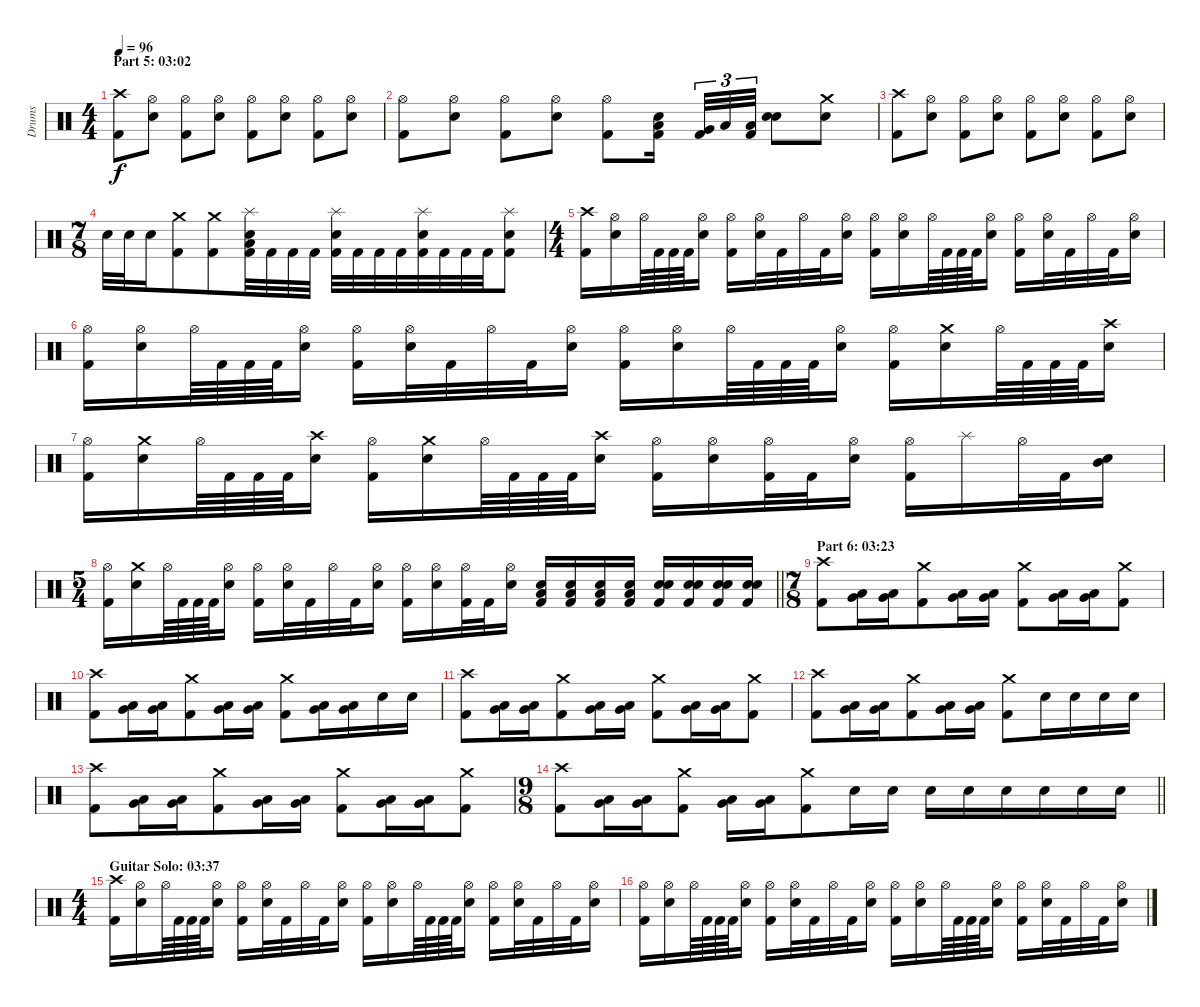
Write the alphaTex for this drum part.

\track ("Drums" "Drums") {instrument percussion}
\staff {score}
\articulation defaults
\ts (4 4)
\section ("" "Part 5: 03:02")
\tempo 96
\clef neutral
\ks c
("Crash high (hit)" "Kick (hit) 2").8{dy f} ("Hi-Hat (open)" "Electric Snare (hit)").8 ("Hi-Hat (open)" "Kick (hit) 2").8 ("Hi-Hat (open)" "Electric Snare (hit)").8 ("Hi-Hat (open)" "Kick (hit) 2").8 ("Hi-Hat (open)" "Electric Snare (hit)").8 ("Hi-Hat (open)" "Kick (hit) 2").8 ("Hi-Hat (open)" "Electric Snare (hit)").8 |
("Hi-Hat (open)" "Kick (hit) 2").8 ("Hi-Hat (open)" "Electric Snare (hit)").8 ("Hi-Hat (open)" "Kick (hit) 2").8 ("Hi-Hat (open)" "Electric Snare (hit)").8 ("Hi-Hat (open)" "Kick (hit) 2").8 ("Low Tom (hit)" "Electric Snare (hit)" "Kick (hit) 2").16{bd 30 beam splitsecondary} ("Very Low Tom (hit)" "Kick (hit) 2").32{tu (3 2) bd 30} "Low Floor Tom (hit)".32{tu (3 2)} ("Low Floor Tom (hit)" "Kick (hit) 2").32{tu (3 2)} ("Electric Snare (hit)" "Electric Snare (hit)").8{bd 30} ("Crash medium (hit)" "Electric Snare (hit)").8 |
("Crash high (hit)" "Kick (hit) 2").8 ("Hi-Hat (open)" "Electric Snare (hit)").8 ("Hi-Hat (open)" "Kick (hit) 2").8 ("Hi-Hat (open)" "Electric Snare (hit)").8 ("Hi-Hat (open)" "Kick (hit) 2").8 ("Hi-Hat (open)" "Electric Snare (hit)").8 ("Hi-Hat (open)" "Kick (hit) 2").8 ("Hi-Hat (open)" "Electric Snare (hit)").8 |
\ts (7 8)
"Electric Snare (hit)".32 "Electric Snare (hit)".32 "Electric Snare (hit)".16 ("Crash medium (hit)" "Kick (hit) 2").8 ("Crash medium (hit)" "Kick (hit) 2").8 ("Splash (hit)" "Low Tom (hit)" "Electric Snare (hit)" "Kick (hit) 2").32{bd 30} "Kick (hit) 2".32 "Kick (hit) 2".32 "Kick (hit) 2".32 ("Splash (hit)" "Electric Snare (hit)" "Kick (hit) 2").32 "Kick (hit) 2".32 "Kick (hit) 2".32 "Kick (hit) 2".32 ("Splash (hit)" "Electric Snare (hit)" "Kick (hit) 2").32 "Kick (hit) 2".32 "Kick (hit) 2".32 "Kick (hit) 2".32 ("Splash (hit)" "Electric Snare (hit)" "Kick (hit) 2").8 |
\ts (4 4)
("Crash high (hit)" "Kick (hit) 2").16 ("Hi-Hat (open)" "Electric Snare (hit)").16 "Hi-Hat (open)".64 "Kick (hit) 2".64 "Kick (hit) 2".64 "Kick (hit) 2".64 ("Hi-Hat (open)" "Electric Snare (hit)").16 ("Hi-Hat (open)" "Kick (hit) 2").16 ("Hi-Hat (open)" "Electric Snare (hit)").32 "Kick (hit) 2".32 "Hi-Hat (open)".32 "Kick (hit) 2".32 ("Hi-Hat (open)" "Electric Snare (hit)").16 ("Hi-Hat (open)" "Kick (hit) 2").16 ("Hi-Hat (open)" "Electric Snare (hit)").16 "Hi-Hat (open)".64 "Kick (hit) 2".64 "Kick (hit) 2".64 "Kick (hit) 2".64 ("Hi-Hat (open)" "Electric Snare (hit)").16 ("Hi-Hat (open)" "Kick (hit) 2").16 ("Hi-Hat (open)" "Electric Snare (hit)").32 "Kick (hit) 2".32 "Hi-Hat (open)".32 "Kick (hit) 2".32 ("Hi-Hat (open)" "Electric Snare (hit)").16 |
("Hi-Hat (open)" "Kick (hit) 2").16 ("Hi-Hat (open)" "Electric Snare (hit)").16 "Hi-Hat (open)".64 "Kick (hit) 2".64 "Kick (hit) 2".64 "Kick (hit) 2".64 ("Hi-Hat (open)" "Electric Snare (hit)").16 ("Hi-Hat (open)" "Kick (hit) 2").16 ("Hi-Hat (open)" "Electric Snare (hit)").32 "Kick (hit) 2".32 "Hi-Hat (open)".32 "Kick (hit) 2".32 ("Hi-Hat (open)" "Electric Snare (hit)").16 ("Hi-Hat (open)" "Kick (hit) 2").16 ("Hi-Hat (open)" "Electric Snare (hit)").16 "Hi-Hat (open)".64 "Kick (hit) 2".64 "Kick (hit) 2".64 "Kick (hit) 2".64 ("Hi-Hat (open)" "Electric Snare (hit)").16 ("Hi-Hat (open)" "Kick (hit) 2").16 ("Crash medium (hit)" "Electric Snare (hit)").16 "Hi-Hat (open)".64 "Kick (hit) 2".64 "Kick (hit) 2".64 "Kick (hit) 2".64 ("Crash high (hit)" "Electric Snare (hit)").16 |
("Hi-Hat (open)" "Kick (hit) 2").16 ("Crash medium (hit)" "Electric Snare (hit)").16 "Hi-Hat (open)".64 "Kick (hit) 2".64 "Kick (hit) 2".64 "Kick (hit) 2".64 ("Crash high (hit)" "Electric Snare (hit)").16 ("Hi-Hat (open)" "Kick (hit) 2").16 ("Crash medium (hit)" "Electric Snare (hit)").16 "Hi-Hat (open)".64 "Kick (hit) 2".64 "Kick (hit) 2".64 "Kick (hit) 2".64 ("Crash high (hit)" "Electric Snare (hit)").16 ("Hi-Hat (open)" "Kick (hit) 2").16 ("Hi-Hat (open)" "Electric Snare (hit)").16 ("Hi-Hat (open)" "Kick (hit) 2").32 "Kick (hit) 2".32 ("Hi-Hat (open)" "Electric Snare (hit)").16 ("Hi-Hat (open)" "Kick (hit) 2").16 "Splash (hit)".16 "Hi-Hat (open)".32 "Kick (hit) 2".32 ("Mid Tom (hit)" "Electric Snare (hit)").16{bd 60} |
\ts (5 4)
\barLineRight lightlight
("Hi-Hat (open)" "Kick (hit) 2").16 ("Crash medium (hit)" "Electric Snare (hit)").16 "Hi-Hat (open)".64 "Kick (hit) 2".64 "Kick (hit) 2".64 "Kick (hit) 2".64 ("Hi-Hat (open)" "Electric Snare (hit)").16 ("Hi-Hat (open)" "Kick (hit) 2").16 ("Hi-Hat (open)" "Electric Snare (hit)").32 "Kick (hit) 2".32 "Hi-Hat (open)".32 "Kick (hit) 2".32 ("Hi-Hat (open)" "Electric Snare (hit)").16 ("Hi-Hat (open)" "Kick (hit) 2").16 ("Hi-Hat (open)" "Electric Snare (hit)").16 ("Hi-Hat (open)" "Kick (hit) 2").32 "Kick (hit) 2".32 ("Hi-Hat (open)" "Electric Snare (hit)").16 ("Low Floor Tom (hit)" "Electric Snare (hit)" "Kick (hit) 2").16 ("Low Floor Tom (hit)" "Electric Snare (hit)" "Kick (hit) 2").16 ("Low Floor Tom (hit)" "Electric Snare (hit)" "Kick (hit) 2").16 ("Low Floor Tom (hit)" "Electric Snare (hit)" "Kick (hit) 2").16 ("Electric Snare (hit)" "Electric Snare (hit)" "Kick (hit) 2").16 ("Electric Snare (hit)" "Electric Snare (hit)" "Kick (hit) 2").16 ("Electric Snare (hit)" "Electric Snare (hit)" "Kick (hit) 2").16 ("Electric Snare (hit)" "Electric Snare (hit)" "Kick (hit) 2").16 |
\ts (7 8)
\section ("" "Part 6: 03:23")
("Crash high (hit)" "Kick (hit) 2").8 ("Low Tom (hit)" "Very Low Tom (hit)").16{bd 30} ("Low Tom (hit)" "Very Low Tom (hit)").16{bd 30} ("Crash medium (hit)" "Kick (hit) 2").8 ("Low Tom (hit)" "Very Low Tom (hit)").16{bd 30} ("Low Tom (hit)" "Very Low Tom (hit)").16{bd 30} ("Crash medium (hit)" "Kick (hit) 2").8 ("Low Tom (hit)" "Very Low Tom (hit)").16{bd 30} ("Low Tom (hit)" "Very Low Tom (hit)").16{bd 30} ("Crash medium (hit)" "Kick (hit) 2").8 |
("Crash high (hit)" "Kick (hit) 2").8 ("Low Tom (hit)" "Very Low Tom (hit)").16{bd 30} ("Low Tom (hit)" "Very Low Tom (hit)").16{bd 30} ("Crash medium (hit)" "Kick (hit) 2").8 ("Low Tom (hit)" "Very Low Tom (hit)").16{bd 30} ("Low Tom (hit)" "Very Low Tom (hit)").16{bd 30} ("Crash medium (hit)" "Kick (hit) 2").8 ("Low Tom (hit)" "Very Low Tom (hit)").16{bd 30} ("Low Tom (hit)" "Very Low Tom (hit)").16{bd 30} "Electric Snare (hit)".16 "Electric Snare (hit)".16 |
("Crash high (hit)" "Kick (hit) 2").8 ("Low Tom (hit)" "Very Low Tom (hit)").16{bd 30} ("Low Tom (hit)" "Very Low Tom (hit)").16{bd 30} ("Crash medium (hit)" "Kick (hit) 2").8 ("Low Tom (hit)" "Very Low Tom (hit)").16{bd 30} ("Low Tom (hit)" "Very Low Tom (hit)").16{bd 30} ("Crash medium (hit)" "Kick (hit) 2").8 ("Low Tom (hit)" "Very Low Tom (hit)").16{bd 30} ("Low Tom (hit)" "Very Low Tom (hit)").16{bd 30} ("Crash medium (hit)" "Kick (hit) 2").8 |
("Crash high (hit)" "Kick (hit) 2").8 ("Low Tom (hit)" "Very Low Tom (hit)").16{bd 30} ("Low Tom (hit)" "Very Low Tom (hit)").16{bd 30} ("Crash medium (hit)" "Kick (hit) 2").8 ("Low Tom (hit)" "Very Low Tom (hit)").16{bd 30} ("Low Tom (hit)" "Very Low Tom (hit)").16{bd 30} ("Crash medium (hit)" "Kick (hit) 2").8 "Electric Snare (hit)".16 "Electric Snare (hit)".16 "Electric Snare (hit)".16 "Electric Snare (hit)".16 |
("Crash high (hit)" "Kick (hit) 2").8 ("Low Tom (hit)" "Very Low Tom (hit)").16{bd 30} ("Low Tom (hit)" "Very Low Tom (hit)").16{bd 30} ("Crash medium (hit)" "Kick (hit) 2").8 ("Low Tom (hit)" "Very Low Tom (hit)").16{bd 30} ("Low Tom (hit)" "Very Low Tom (hit)").16{bd 30} ("Crash medium (hit)" "Kick (hit) 2").8 ("Low Tom (hit)" "Very Low Tom (hit)").16{bd 30} ("Low Tom (hit)" "Very Low Tom (hit)").16{bd 30} ("Crash medium (hit)" "Kick (hit) 2").8 |
\ts (9 8)
\barLineRight lightlight
("Crash high (hit)" "Kick (hit) 2").8 ("Low Tom (hit)" "Very Low Tom (hit)").16{bd 30} ("Low Tom (hit)" "Very Low Tom (hit)").16{bd 30} ("Crash medium (hit)" "Kick (hit) 2").8 ("Low Tom (hit)" "Very Low Tom (hit)").16{bd 30} ("Low Tom (hit)" "Very Low Tom (hit)").16{bd 30} ("Crash medium (hit)" "Kick (hit) 2").8 "Electric Snare (hit)".16 "Electric Snare (hit)".16 "Electric Snare (hit)".16 "Electric Snare (hit)".16 "Electric Snare (hit)".16 "Electric Snare (hit)".16 "Electric Snare (hit)".16 "Electric Snare (hit)".16 |
\ts (4 4)
\section ("" "Guitar Solo: 03:37")
("Crash high (hit)" "Kick (hit) 2").16 ("Hi-Hat (open)" "Electric Snare (hit)").16 "Hi-Hat (open)".64 "Kick (hit) 2".64 "Kick (hit) 2".64 "Kick (hit) 2".64 ("Hi-Hat (open)" "Electric Snare (hit)").16 ("Hi-Hat (open)" "Kick (hit) 2").16 ("Hi-Hat (open)" "Electric Snare (hit)").32 "Kick (hit) 2".32 "Hi-Hat (open)".32 "Kick (hit) 2".32 ("Hi-Hat (open)" "Electric Snare (hit)").16 ("Hi-Hat (open)" "Kick (hit) 2").16 ("Hi-Hat (open)" "Electric Snare (hit)").16 "Hi-Hat (open)".64 "Kick (hit) 2".64 "Kick (hit) 2".64 "Kick (hit) 2".64 ("Hi-Hat (open)" "Electric Snare (hit)").16 ("Hi-Hat (open)" "Kick (hit) 2").16 ("Hi-Hat (open)" "Electric Snare (hit)").32 "Kick (hit) 2".32 "Hi-Hat (open)".32 "Kick (hit) 2".32 ("Hi-Hat (open)" "Electric Snare (hit)").16 |
("Hi-Hat (open)" "Kick (hit) 2").16 ("Hi-Hat (open)" "Electric Snare (hit)").16 "Hi-Hat (open)".64 "Kick (hit) 2".64 "Kick (hit) 2".64 "Kick (hit) 2".64 ("Hi-Hat (open)" "Electric Snare (hit)").16 ("Hi-Hat (open)" "Kick (hit) 2").16 ("Hi-Hat (open)" "Electric Snare (hit)").32 "Kick (hit) 2".32 "Hi-Hat (open)".32 "Kick (hit) 2".32 ("Hi-Hat (open)" "Electric Snare (hit)").16 ("Hi-Hat (open)" "Kick (hit) 2").16 ("Hi-Hat (open)" "Electric Snare (hit)").16 "Hi-Hat (open)".64 "Kick (hit) 2".64 "Kick (hit) 2".64 "Kick (hit) 2".64 ("Hi-Hat (open)" "Electric Snare (hit)").16 ("Hi-Hat (open)" "Kick (hit) 2").16 ("Hi-Hat (open)" "Electric Snare (hit)").32 "Kick (hit) 2".32 "Hi-Hat (open)".32 "Kick (hit) 2".32 ("Hi-Hat (open)" "Electric Snare (hit)").16
